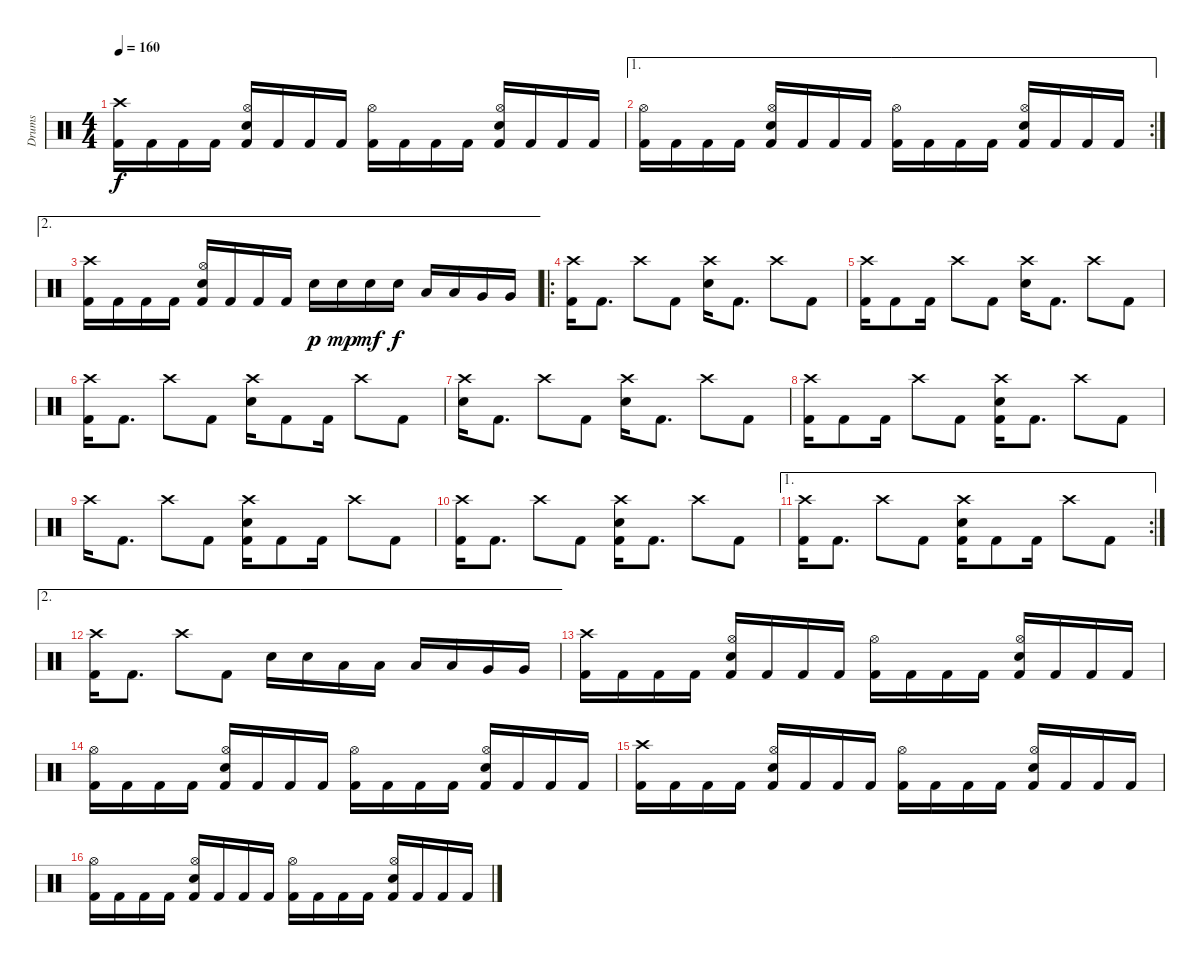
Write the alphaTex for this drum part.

\track ("Drums" "Drums") {instrument percussion}
\staff {score}
\articulation defaults
\ts (4 4)
\tempo 160
\clef neutral
\ks c
("Crash high (hit)" "Kick (hit) 2").16{dy f} "Kick (hit) 2".16 "Kick (hit) 2".16 "Kick (hit) 2".16 ("Hi-Hat (open)" "Electric Snare (hit)" "Kick (hit) 2").16 "Kick (hit) 2".16 "Kick (hit) 2".16 "Kick (hit) 2".16 ("Hi-Hat (open)" "Kick (hit) 2").16 "Kick (hit) 2".16 "Kick (hit) 2".16 "Kick (hit) 2".16 ("Hi-Hat (open)" "Electric Snare (hit)" "Kick (hit) 2").16 "Kick (hit) 2".16 "Kick (hit) 2".16 "Kick (hit) 2".16 |
\ae 1
\rc 2
("Hi-Hat (open)" "Kick (hit) 2").16 "Kick (hit) 2".16 "Kick (hit) 2".16 "Kick (hit) 2".16 ("Hi-Hat (open)" "Electric Snare (hit)" "Kick (hit) 2").16 "Kick (hit) 2".16 "Kick (hit) 2".16 "Kick (hit) 2".16 ("Hi-Hat (open)" "Kick (hit) 2").16 "Kick (hit) 2".16 "Kick (hit) 2".16 "Kick (hit) 2".16 ("Hi-Hat (open)" "Electric Snare (hit)" "Kick (hit) 2").16 "Kick (hit) 2".16 "Kick (hit) 2".16 "Kick (hit) 2".16 |
\ae 2
("Crash high (hit)" "Kick (hit) 2").16 "Kick (hit) 2".16 "Kick (hit) 2".16 "Kick (hit) 2".16 ("Hi-Hat (open)" "Electric Snare (hit)" "Kick (hit) 2").16 "Kick (hit) 2".16 "Kick (hit) 2".16 "Kick (hit) 2".16 "Electric Snare (hit)".16{dy p} "Electric Snare (hit)".16{dy mp} "Electric Snare (hit)".16{dy mf} "Electric Snare (hit)".16{dy f} "Low Floor Tom (hit)".16 "Low Floor Tom (hit)".16 "Very Low Tom (hit)".16 "Very Low Tom (hit)".16 |
\ro
("Crash high (hit)" "Kick (hit) 2").16 "Kick (hit) 2".8{d} "Crash high (hit)".8 "Kick (hit) 2".8 ("Crash high (hit)" "Electric Snare (hit)").16 "Kick (hit) 2".8{d} "Crash high (hit)".8 "Kick (hit) 2".8 |
("Crash high (hit)" "Kick (hit) 2").16 "Kick (hit) 2".8 "Kick (hit) 2".16 "Crash high (hit)".8 "Kick (hit) 2".8 ("Crash high (hit)" "Electric Snare (hit)").16 "Kick (hit) 2".8{d} "Crash high (hit)".8 "Kick (hit) 2".8 |
("Crash high (hit)" "Kick (hit) 2").16 "Kick (hit) 2".8{d} "Crash high (hit)".8 "Kick (hit) 2".8 ("Crash high (hit)" "Electric Snare (hit)").16 "Kick (hit) 2".8 "Kick (hit) 2".16 "Crash high (hit)".8 "Kick (hit) 2".8 |
("Crash high (hit)" "Electric Snare (hit)").16 "Kick (hit) 2".8{d} "Crash high (hit)".8 "Kick (hit) 2".8 ("Crash high (hit)" "Electric Snare (hit)").16 "Kick (hit) 2".8{d} "Crash high (hit)".8 "Kick (hit) 2".8 |
("Crash high (hit)" "Kick (hit) 2").16 "Kick (hit) 2".8 "Kick (hit) 2".16 "Crash high (hit)".8 "Kick (hit) 2".8 ("Crash high (hit)" "Electric Snare (hit)" "Kick (hit) 2").16 "Kick (hit) 2".8{d} "Crash high (hit)".8 "Kick (hit) 2".8 |
"Crash high (hit)".16 "Kick (hit) 2".8{d} "Crash high (hit)".8 "Kick (hit) 2".8 ("Crash high (hit)" "Electric Snare (hit)" "Kick (hit) 2").16 "Kick (hit) 2".8 "Kick (hit) 2".16 "Crash high (hit)".8 "Kick (hit) 2".8 |
("Crash high (hit)" "Kick (hit) 2").16 "Kick (hit) 2".8{d} "Crash high (hit)".8 "Kick (hit) 2".8 ("Crash high (hit)" "Electric Snare (hit)" "Kick (hit) 2").16 "Kick (hit) 2".8{d} "Crash high (hit)".8 "Kick (hit) 2".8 |
\ae 1
\rc 2
("Crash high (hit)" "Kick (hit) 2").16 "Kick (hit) 2".8{d} "Crash high (hit)".8 "Kick (hit) 2".8 ("Crash high (hit)" "Electric Snare (hit)" "Kick (hit) 2").16 "Kick (hit) 2".8 "Kick (hit) 2".16 "Crash high (hit)".8 "Kick (hit) 2".8 |
\ae 2
("Crash high (hit)" "Kick (hit) 2").16 "Kick (hit) 2".8{d} "Crash high (hit)".8 "Kick (hit) 2".8 "Electric Snare (hit)".16 "Electric Snare (hit)".16 "Low Floor Tom (hit)".16 "Low Floor Tom (hit)".16 "Low Tom (hit)".16 "Low Tom (hit)".16 "Very Low Tom (hit)".16 "Very Low Tom (hit)".16 |
("Crash high (hit)" "Kick (hit) 2").16 "Kick (hit) 2".16 "Kick (hit) 2".16 "Kick (hit) 2".16 ("Hi-Hat (open)" "Electric Snare (hit)" "Kick (hit) 2").16 "Kick (hit) 2".16 "Kick (hit) 2".16 "Kick (hit) 2".16 ("Hi-Hat (open)" "Kick (hit) 2").16 "Kick (hit) 2".16 "Kick (hit) 2".16 "Kick (hit) 2".16 ("Hi-Hat (open)" "Electric Snare (hit)" "Kick (hit) 2").16 "Kick (hit) 2".16 "Kick (hit) 2".16 "Kick (hit) 2".16 |
("Hi-Hat (open)" "Kick (hit) 2").16 "Kick (hit) 2".16 "Kick (hit) 2".16 "Kick (hit) 2".16 ("Hi-Hat (open)" "Electric Snare (hit)" "Kick (hit) 2").16 "Kick (hit) 2".16 "Kick (hit) 2".16 "Kick (hit) 2".16 ("Hi-Hat (open)" "Kick (hit) 2").16 "Kick (hit) 2".16 "Kick (hit) 2".16 "Kick (hit) 2".16 ("Hi-Hat (open)" "Electric Snare (hit)" "Kick (hit) 2").16 "Kick (hit) 2".16 "Kick (hit) 2".16 "Kick (hit) 2".16 |
("Crash high (hit)" "Kick (hit) 2").16 "Kick (hit) 2".16 "Kick (hit) 2".16 "Kick (hit) 2".16 ("Hi-Hat (open)" "Electric Snare (hit)" "Kick (hit) 2").16 "Kick (hit) 2".16 "Kick (hit) 2".16 "Kick (hit) 2".16 ("Hi-Hat (open)" "Kick (hit) 2").16 "Kick (hit) 2".16 "Kick (hit) 2".16 "Kick (hit) 2".16 ("Hi-Hat (open)" "Electric Snare (hit)" "Kick (hit) 2").16 "Kick (hit) 2".16 "Kick (hit) 2".16 "Kick (hit) 2".16 |
("Hi-Hat (open)" "Kick (hit) 2").16 "Kick (hit) 2".16 "Kick (hit) 2".16 "Kick (hit) 2".16 ("Hi-Hat (open)" "Electric Snare (hit)" "Kick (hit) 2").16 "Kick (hit) 2".16 "Kick (hit) 2".16 "Kick (hit) 2".16 ("Hi-Hat (open)" "Kick (hit) 2").16 "Kick (hit) 2".16 "Kick (hit) 2".16 "Kick (hit) 2".16 ("Hi-Hat (open)" "Electric Snare (hit)" "Kick (hit) 2").16 "Kick (hit) 2".16 "Kick (hit) 2".16 "Kick (hit) 2".16
